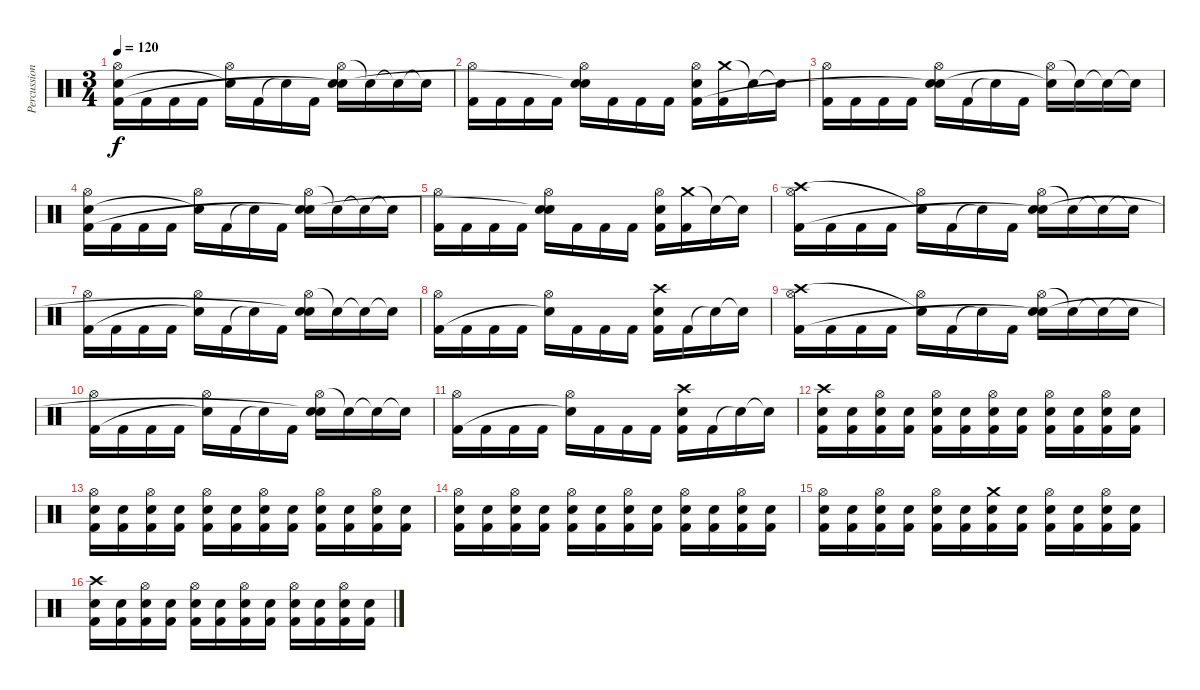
\track ("Percussions" "Percussion") {instrument percussion}
\staff {score}
\articulation defaults
\ts (3 4)
\tempo 120
\clef neutral
\ks c
("Hi-Hat (open)" "Electric Snare (hit)" "Kick (hit) 2").16{dy f} "Kick (hit) 2".16 "Kick (hit) 2".16 "Kick (hit) 2".16 ("Hi-Hat (open)" "Snare (hit)"{t}).16 "Kick (hit) 2".16 "Snare (hit)"{t}.16 "Kick (hit) 2".16 ("Hi-Hat (open)" "Electric Snare (hit)" "Snare (hit)"{t}).16 "Snare (hit)"{t}.16 "Snare (hit)"{t}.16 "Snare (hit)"{t}.16 |
("Hi-Hat (open)" "Kick (hit) 2").16 "Kick (hit) 2".16 "Kick (hit) 2".16 "Kick (hit) 2".16 ("Hi-Hat (open)" "Electric Snare (hit)" "Snare (hit)"{t}).16 "Kick (hit) 2".16 "Kick (hit) 2".16 "Kick (hit) 2".16 ("Hi-Hat (open)" "Electric Snare (hit)" "Kick (hit) 2").16 ("Crash medium (hit)" "Kick (hit) 2").16 "Snare (hit)"{t}.16 "Snare (hit)"{t}.16 |
("Hi-Hat (open)" "Kick (hit) 2").16 "Kick (hit) 2".16 "Kick (hit) 2".16 "Kick (hit) 2".16 ("Hi-Hat (open)" "Electric Snare (hit)" "Snare (hit)"{t}).16 "Kick (hit) 2".16 "Snare (hit)"{t}.16 "Kick (hit) 2".16 ("Hi-Hat (open)" "Snare (hit)"{t}).16 "Snare (hit)"{t}.16 "Snare (hit)"{t}.16 "Snare (hit)"{t}.16 |
("Hi-Hat (open)" "Electric Snare (hit)" "Kick (hit) 2").16 "Kick (hit) 2".16 "Kick (hit) 2".16 "Kick (hit) 2".16 ("Hi-Hat (open)" "Snare (hit)"{t}).16 "Kick (hit) 2".16 "Snare (hit)"{t}.16 "Kick (hit) 2".16 ("Hi-Hat (open)" "Electric Snare (hit)" "Snare (hit)"{t}).16 "Snare (hit)"{t}.16 "Snare (hit)"{t}.16 "Snare (hit)"{t}.16 |
("Hi-Hat (open)" "Kick (hit) 2").16 "Kick (hit) 2".16 "Kick (hit) 2".16 "Kick (hit) 2".16 ("Hi-Hat (open)" "Electric Snare (hit)" "Snare (hit)"{t}).16 "Kick (hit) 2".16 "Kick (hit) 2".16 "Kick (hit) 2".16 ("Hi-Hat (open)" "Electric Snare (hit)" "Kick (hit) 2").16 ("Crash medium (hit)" "Kick (hit) 2").16 "Snare (hit)"{t}.16 "Snare (hit)"{t}.16 |
("Hi-Hat (open)" "Crash high (hit)" "Kick (hit) 2").16 "Kick (hit) 2".16 "Kick (hit) 2".16 "Kick (hit) 2".16 ("Hi-Hat (open)" "Snare (hit)"{t}).16 "Kick (hit) 2".16 "Snare (hit)"{t}.16 "Kick (hit) 2".16 ("Hi-Hat (open)" "Electric Snare (hit)" "Snare (hit)"{t}).16 "Snare (hit)"{t}.16 "Snare (hit)"{t}.16 "Snare (hit)"{t}.16 |
("Hi-Hat (open)" "Kick (hit) 2").16 "Kick (hit) 2".16 "Kick (hit) 2".16 "Kick (hit) 2".16 ("Hi-Hat (open)" "Snare (hit)"{t}).16 "Kick (hit) 2".16 "Snare (hit)"{t}.16 "Kick (hit) 2".16 ("Hi-Hat (open)" "Electric Snare (hit)" "Snare (hit)"{t}).16 "Snare (hit)"{t}.16 "Snare (hit)"{t}.16 "Snare (hit)"{t}.16 |
("Hi-Hat (open)" "Kick (hit) 2").16 "Kick (hit) 2".16 "Kick (hit) 2".16 "Kick (hit) 2".16 ("Hi-Hat (open)" "Snare (hit)"{t}).16 "Kick (hit) 2".16 "Kick (hit) 2".16 "Kick (hit) 2".16 ("Crash high (hit)" "Electric Snare (hit)" "Kick (hit) 2").16 "Kick (hit) 2".16 "Snare (hit)"{t}.16 "Snare (hit)"{t}.16 |
("Hi-Hat (open)" "Crash high (hit)" "Kick (hit) 2").16 "Kick (hit) 2".16 "Kick (hit) 2".16 "Kick (hit) 2".16 ("Hi-Hat (open)" "Snare (hit)"{t}).16 "Kick (hit) 2".16 "Snare (hit)"{t}.16 "Kick (hit) 2".16 ("Hi-Hat (open)" "Electric Snare (hit)" "Snare (hit)"{t}).16 "Snare (hit)"{t}.16 "Snare (hit)"{t}.16 "Snare (hit)"{t}.16 |
("Hi-Hat (open)" "Kick (hit) 2").16 "Kick (hit) 2".16 "Kick (hit) 2".16 "Kick (hit) 2".16 ("Hi-Hat (open)" "Snare (hit)"{t}).16 "Kick (hit) 2".16 "Snare (hit)"{t}.16 "Kick (hit) 2".16 ("Hi-Hat (open)" "Electric Snare (hit)" "Snare (hit)"{t}).16 "Snare (hit)"{t}.16 "Snare (hit)"{t}.16 "Snare (hit)"{t}.16 |
("Hi-Hat (open)" "Kick (hit) 2").16 "Kick (hit) 2".16 "Kick (hit) 2".16 "Kick (hit) 2".16 ("Hi-Hat (open)" "Snare (hit)"{t}).16 "Kick (hit) 2".16 "Kick (hit) 2".16 "Kick (hit) 2".16 ("Crash high (hit)" "Electric Snare (hit)" "Kick (hit) 2").16 "Kick (hit) 2".16 "Snare (hit)"{t}.16 "Snare (hit)"{t}.16 |
("Crash high (hit)" "Electric Snare (hit)" "Kick (hit) 2").16 ("Electric Snare (hit)" "Kick (hit) 2").16 ("Hi-Hat (open)" "Electric Snare (hit)" "Kick (hit) 2").16 ("Electric Snare (hit)" "Kick (hit) 2").16 ("Hi-Hat (open)" "Electric Snare (hit)" "Kick (hit) 2").16 ("Electric Snare (hit)" "Kick (hit) 2").16 ("Hi-Hat (open)" "Electric Snare (hit)" "Kick (hit) 2").16 ("Electric Snare (hit)" "Kick (hit) 2").16 ("Hi-Hat (open)" "Electric Snare (hit)" "Kick (hit) 2").16 ("Electric Snare (hit)" "Kick (hit) 2").16 ("Hi-Hat (open)" "Electric Snare (hit)" "Kick (hit) 2").16 ("Electric Snare (hit)" "Kick (hit) 2").16 |
("Hi-Hat (open)" "Electric Snare (hit)" "Kick (hit) 2").16 ("Electric Snare (hit)" "Kick (hit) 2").16 ("Hi-Hat (open)" "Electric Snare (hit)" "Kick (hit) 2").16 ("Electric Snare (hit)" "Kick (hit) 2").16 ("Hi-Hat (open)" "Electric Snare (hit)" "Kick (hit) 2").16 ("Electric Snare (hit)" "Kick (hit) 2").16 ("Hi-Hat (open)" "Electric Snare (hit)" "Kick (hit) 2").16 ("Electric Snare (hit)" "Kick (hit) 2").16 ("Hi-Hat (open)" "Electric Snare (hit)" "Kick (hit) 2").16 ("Electric Snare (hit)" "Kick (hit) 2").16 ("Hi-Hat (open)" "Electric Snare (hit)" "Kick (hit) 2").16 ("Electric Snare (hit)" "Kick (hit) 2").16 |
("Hi-Hat (open)" "Electric Snare (hit)" "Kick (hit) 2").16 ("Electric Snare (hit)" "Kick (hit) 2").16 ("Hi-Hat (open)" "Electric Snare (hit)" "Kick (hit) 2").16 ("Electric Snare (hit)" "Kick (hit) 2").16 ("Hi-Hat (open)" "Electric Snare (hit)" "Kick (hit) 2").16 ("Electric Snare (hit)" "Kick (hit) 2").16 ("Hi-Hat (open)" "Electric Snare (hit)" "Kick (hit) 2").16 ("Electric Snare (hit)" "Kick (hit) 2").16 ("Hi-Hat (open)" "Electric Snare (hit)" "Kick (hit) 2").16 ("Electric Snare (hit)" "Kick (hit) 2").16 ("Hi-Hat (open)" "Electric Snare (hit)" "Kick (hit) 2").16 ("Electric Snare (hit)" "Kick (hit) 2").16 |
("Hi-Hat (open)" "Electric Snare (hit)" "Kick (hit) 2").16 ("Electric Snare (hit)" "Kick (hit) 2").16 ("Hi-Hat (open)" "Electric Snare (hit)" "Kick (hit) 2").16 ("Electric Snare (hit)" "Kick (hit) 2").16 ("Hi-Hat (open)" "Electric Snare (hit)" "Kick (hit) 2").16 ("Electric Snare (hit)" "Kick (hit) 2").16 ("Crash medium (hit)" "Electric Snare (hit)" "Kick (hit) 2").16 ("Electric Snare (hit)" "Kick (hit) 2").16 ("Hi-Hat (open)" "Electric Snare (hit)" "Kick (hit) 2").16 ("Electric Snare (hit)" "Kick (hit) 2").16 ("Hi-Hat (open)" "Electric Snare (hit)" "Kick (hit) 2").16 ("Electric Snare (hit)" "Kick (hit) 2").16 |
("Crash high (hit)" "Electric Snare (hit)" "Kick (hit) 2").16 ("Electric Snare (hit)" "Kick (hit) 2").16 ("Hi-Hat (open)" "Electric Snare (hit)" "Kick (hit) 2").16 ("Electric Snare (hit)" "Kick (hit) 2").16 ("Hi-Hat (open)" "Electric Snare (hit)" "Kick (hit) 2").16 ("Electric Snare (hit)" "Kick (hit) 2").16 ("Hi-Hat (open)" "Electric Snare (hit)" "Kick (hit) 2").16 ("Electric Snare (hit)" "Kick (hit) 2").16 ("Hi-Hat (open)" "Electric Snare (hit)" "Kick (hit) 2").16 ("Electric Snare (hit)" "Kick (hit) 2").16 ("Hi-Hat (open)" "Electric Snare (hit)" "Kick (hit) 2").16 ("Electric Snare (hit)" "Kick (hit) 2").16
